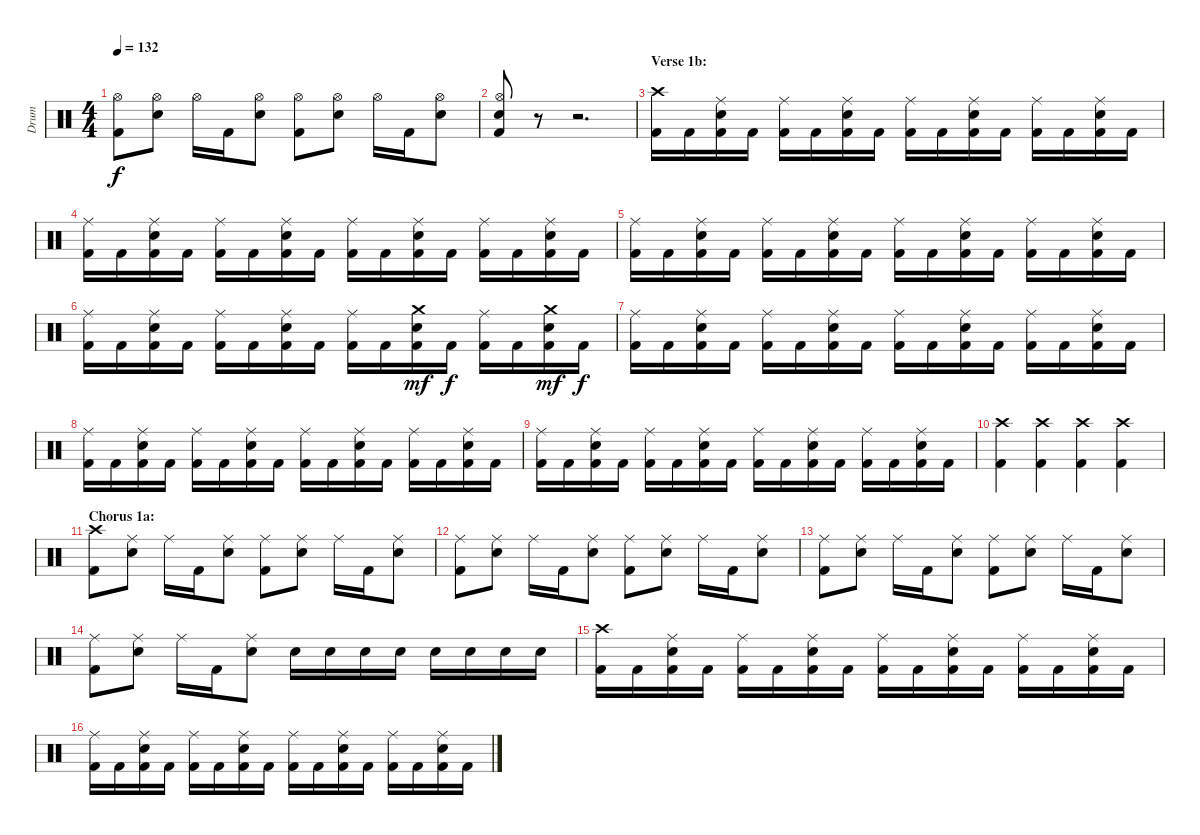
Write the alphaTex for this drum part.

\track ("Drum" "Drum") {instrument percussion}
\staff {score}
\articulation defaults
\ts (4 4)
\tempo 132
\clef neutral
\ks c
("Kick (hit) 2" "Hi-Hat (open)").8{dy f} ("Snare (hit) 2" "Hi-Hat (open)").8 "Hi-Hat (open)".16 "Kick (hit) 2".16 ("Snare (hit) 2" "Hi-Hat (open)").8 ("Kick (hit) 2" "Hi-Hat (open)").8 ("Snare (hit) 2" "Hi-Hat (open)").8 "Hi-Hat (open)".16 "Kick (hit) 2".16 ("Snare (hit) 2" "Hi-Hat (open)").8 |
("Kick (hit) 2" "Snare (hit) 2" "Hi-Hat (open)").8 r.8 r.2{d} |
\section ("" "Verse 1b:")
("Kick (hit) 2" "Crash high (hit)").16 "Kick (hit) 2".16 ("Kick (hit) 2" "Snare (hit) 2" "Ride (middle)").16 "Kick (hit) 2".16 ("Kick (hit) 2" "Ride (middle)").16 "Kick (hit) 2".16 ("Kick (hit) 2" "Snare (hit) 2" "Ride (middle)").16 "Kick (hit) 2".16 ("Kick (hit) 2" "Ride (middle)").16 "Kick (hit) 2".16 ("Kick (hit) 2" "Snare (hit) 2" "Ride (middle)").16 "Kick (hit) 2".16 ("Kick (hit) 2" "Ride (middle)").16 "Kick (hit) 2".16 ("Kick (hit) 2" "Snare (hit) 2" "Ride (middle)").16 "Kick (hit) 2".16 |
("Kick (hit) 2" "Ride (middle)").16 "Kick (hit) 2".16 ("Kick (hit) 2" "Snare (hit) 2" "Ride (middle)").16 "Kick (hit) 2".16 ("Kick (hit) 2" "Ride (middle)").16 "Kick (hit) 2".16 ("Kick (hit) 2" "Snare (hit) 2" "Ride (middle)").16 "Kick (hit) 2".16 ("Kick (hit) 2" "Ride (middle)").16 "Kick (hit) 2".16 ("Kick (hit) 2" "Snare (hit) 2" "Ride (middle)").16 "Kick (hit) 2".16 ("Kick (hit) 2" "Ride (middle)").16 "Kick (hit) 2".16 ("Kick (hit) 2" "Snare (hit) 2" "Ride (middle)").16 "Kick (hit) 2".16 |
("Kick (hit) 2" "Ride (middle)").16 "Kick (hit) 2".16 ("Kick (hit) 2" "Snare (hit) 2" "Ride (middle)").16 "Kick (hit) 2".16 ("Kick (hit) 2" "Ride (middle)").16 "Kick (hit) 2".16 ("Kick (hit) 2" "Snare (hit) 2" "Ride (middle)").16 "Kick (hit) 2".16 ("Kick (hit) 2" "Ride (middle)").16 "Kick (hit) 2".16 ("Kick (hit) 2" "Snare (hit) 2" "Ride (middle)").16 "Kick (hit) 2".16 ("Kick (hit) 2" "Ride (middle)").16 "Kick (hit) 2".16 ("Kick (hit) 2" "Snare (hit) 2" "Ride (middle)").16 "Kick (hit) 2".16 |
("Kick (hit) 2" "Ride (middle)").16 "Kick (hit) 2".16 ("Kick (hit) 2" "Snare (hit) 2" "Ride (middle)").16 "Kick (hit) 2".16 ("Kick (hit) 2" "Ride (middle)").16 "Kick (hit) 2".16 ("Kick (hit) 2" "Snare (hit) 2" "Ride (middle)").16 "Kick (hit) 2".16 ("Kick (hit) 2" "Ride (middle)").16 "Kick (hit) 2".16 ("Kick (hit) 2" "Snare (hit) 2" "Crash medium (hit)").16{dy mf} "Kick (hit) 2".16{dy f} ("Kick (hit) 2" "Ride (middle)").16 "Kick (hit) 2".16 ("Kick (hit) 2" "Snare (hit) 2" "Crash medium (hit)").16{dy mf} "Kick (hit) 2".16{dy f} |
("Kick (hit) 2" "Ride (middle)").16 "Kick (hit) 2".16 ("Kick (hit) 2" "Snare (hit) 2" "Ride (middle)").16 "Kick (hit) 2".16 ("Kick (hit) 2" "Ride (middle)").16 "Kick (hit) 2".16 ("Kick (hit) 2" "Snare (hit) 2" "Ride (middle)").16 "Kick (hit) 2".16 ("Kick (hit) 2" "Ride (middle)").16 "Kick (hit) 2".16 ("Kick (hit) 2" "Snare (hit) 2" "Ride (middle)").16 "Kick (hit) 2".16 ("Kick (hit) 2" "Ride (middle)").16 "Kick (hit) 2".16 ("Kick (hit) 2" "Snare (hit) 2" "Ride (middle)").16 "Kick (hit) 2".16 |
("Kick (hit) 2" "Ride (middle)").16 "Kick (hit) 2".16 ("Kick (hit) 2" "Snare (hit) 2" "Ride (middle)").16 "Kick (hit) 2".16 ("Kick (hit) 2" "Ride (middle)").16 "Kick (hit) 2".16 ("Kick (hit) 2" "Snare (hit) 2" "Ride (middle)").16 "Kick (hit) 2".16 ("Kick (hit) 2" "Ride (middle)").16 "Kick (hit) 2".16 ("Kick (hit) 2" "Snare (hit) 2" "Ride (middle)").16 "Kick (hit) 2".16 ("Kick (hit) 2" "Ride (middle)").16 "Kick (hit) 2".16 ("Kick (hit) 2" "Snare (hit) 2" "Ride (middle)").16 "Kick (hit) 2".16 |
("Kick (hit) 2" "Ride (middle)").16 "Kick (hit) 2".16 ("Kick (hit) 2" "Snare (hit) 2" "Ride (middle)").16 "Kick (hit) 2".16 ("Kick (hit) 2" "Ride (middle)").16 "Kick (hit) 2".16 ("Kick (hit) 2" "Snare (hit) 2" "Ride (middle)").16 "Kick (hit) 2".16 ("Kick (hit) 2" "Ride (middle)").16 "Kick (hit) 2".16 ("Kick (hit) 2" "Snare (hit) 2" "Ride (middle)").16 "Kick (hit) 2".16 ("Kick (hit) 2" "Ride (middle)").16 "Kick (hit) 2".16 ("Kick (hit) 2" "Snare (hit) 2" "Ride (middle)").16 "Kick (hit) 2".16 |
("Kick (hit) 2" "Crash high (hit)").4 ("Kick (hit) 2" "Crash high (hit)").4 ("Kick (hit) 2" "Crash high (hit)").4 ("Kick (hit) 2" "Crash high (hit)").4 |
\section ("" "Chorus 1a:")
("Kick (hit) 2" "Crash high (hit)").8 ("Snare (hit) 2" "Ride (middle)").8 "Ride (middle)".16 "Kick (hit) 2".16 ("Snare (hit) 2" "Ride (middle)").8 ("Kick (hit) 2" "Ride (middle)").8 ("Snare (hit) 2" "Ride (middle)").8 "Ride (middle)".16 "Kick (hit) 2".16 ("Snare (hit) 2" "Ride (middle)").8 |
("Kick (hit) 2" "Ride (middle)").8 ("Snare (hit) 2" "Ride (middle)").8 "Ride (middle)".16 "Kick (hit) 2".16 ("Snare (hit) 2" "Ride (middle)").8 ("Kick (hit) 2" "Ride (middle)").8 ("Snare (hit) 2" "Ride (middle)").8 "Ride (middle)".16 "Kick (hit) 2".16 ("Snare (hit) 2" "Ride (middle)").8 |
("Kick (hit) 2" "Ride (middle)").8 ("Snare (hit) 2" "Ride (middle)").8 "Ride (middle)".16 "Kick (hit) 2".16 ("Snare (hit) 2" "Ride (middle)").8 ("Kick (hit) 2" "Ride (middle)").8 ("Snare (hit) 2" "Ride (middle)").8 "Ride (middle)".16 "Kick (hit) 2".16 ("Snare (hit) 2" "Ride (middle)").8 |
("Kick (hit) 2" "Ride (middle)").8 ("Snare (hit) 2" "Ride (middle)").8 "Ride (middle)".16 "Kick (hit) 2".16 ("Snare (hit) 2" "Ride (middle)").8 "Snare (hit) 2".16 "Snare (hit) 2".16 "Snare (hit) 2".16 "Snare (hit) 2".16 "Snare (hit) 2".16 "Snare (hit) 2".16 "Snare (hit) 2".16 "Snare (hit) 2".16 |
("Kick (hit) 2" "Crash high (hit)").16 "Kick (hit) 2".16 ("Kick (hit) 2" "Snare (hit) 2" "Ride (middle)").16 "Kick (hit) 2".16 ("Kick (hit) 2" "Ride (middle)").16 "Kick (hit) 2".16 ("Kick (hit) 2" "Snare (hit) 2" "Ride (middle)").16 "Kick (hit) 2".16 ("Kick (hit) 2" "Ride (middle)").16 "Kick (hit) 2".16 ("Kick (hit) 2" "Snare (hit) 2" "Ride (middle)").16 "Kick (hit) 2".16 ("Kick (hit) 2" "Ride (middle)").16 "Kick (hit) 2".16 ("Kick (hit) 2" "Snare (hit) 2" "Ride (middle)").16 "Kick (hit) 2".16 |
("Kick (hit) 2" "Ride (middle)").16 "Kick (hit) 2".16 ("Kick (hit) 2" "Snare (hit) 2" "Ride (middle)").16 "Kick (hit) 2".16 ("Kick (hit) 2" "Ride (middle)").16 "Kick (hit) 2".16 ("Kick (hit) 2" "Snare (hit) 2" "Ride (middle)").16 "Kick (hit) 2".16 ("Kick (hit) 2" "Ride (middle)").16 "Kick (hit) 2".16 ("Kick (hit) 2" "Snare (hit) 2" "Ride (middle)").16 "Kick (hit) 2".16 ("Kick (hit) 2" "Ride (middle)").16 "Kick (hit) 2".16 ("Kick (hit) 2" "Snare (hit) 2" "Ride (middle)").16 "Kick (hit) 2".16
